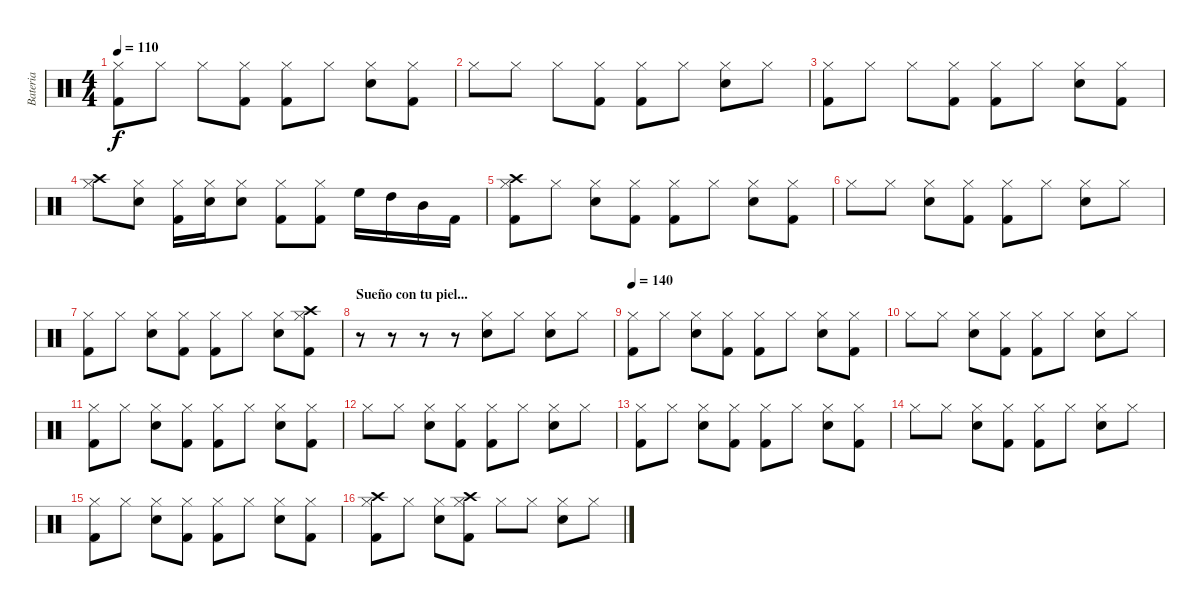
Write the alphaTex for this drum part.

\track ("Bateria" "Bateria") {instrument percussion}
\staff {score}
\articulation defaults
\ts (4 4)
\tempo 110
\clef neutral
\ks c
("Hi-Hat (closed)" "Kick (hit) 2").8{dy f} "Hi-Hat (closed)".8 "Hi-Hat (closed)".8 ("Hi-Hat (closed)" "Kick (hit) 2").8 ("Hi-Hat (closed)" "Kick (hit) 2").8 "Hi-Hat (closed)".8 ("Hi-Hat (closed)" "Snare (hit) 2").8 ("Hi-Hat (closed)" "Kick (hit) 2").8 |
"Hi-Hat (closed)".8 "Hi-Hat (closed)".8 "Hi-Hat (closed)".8 ("Hi-Hat (closed)" "Kick (hit) 2").8 ("Hi-Hat (closed)" "Kick (hit) 2").8 "Hi-Hat (closed)".8 ("Hi-Hat (closed)" "Snare (hit) 2").8 "Hi-Hat (closed)".8 |
("Hi-Hat (closed)" "Kick (hit) 2").8 "Hi-Hat (closed)".8 "Hi-Hat (closed)".8 ("Hi-Hat (closed)" "Kick (hit) 2").8 ("Hi-Hat (closed)" "Kick (hit) 2").8 "Hi-Hat (closed)".8 ("Hi-Hat (closed)" "Snare (hit) 2").8 ("Hi-Hat (closed)" "Kick (hit) 2").8 |
("Hi-Hat (closed)" "Crash high (hit)").8 ("Hi-Hat (closed)" "Snare (hit) 2").8 ("Hi-Hat (closed)" "Kick (hit) 2").16 ("Hi-Hat (closed)" "Snare (hit) 2").16 ("Hi-Hat (closed)" "Snare (hit) 2").8 ("Hi-Hat (closed)" "Kick (hit) 2").8 ("Hi-Hat (closed)" "Kick (hit) 2").8 "High Floor Tom (hit)".16 "High Tom (hit)".16 "Mid Tom (hit)".16 "Kick (hit) 2".16 |
("Hi-Hat (closed)" "Crash high (hit)" "Kick (hit) 2").8 "Hi-Hat (closed)".8 ("Hi-Hat (closed)" "Snare (hit) 2").8 ("Hi-Hat (closed)" "Kick (hit) 2").8 ("Hi-Hat (closed)" "Kick (hit) 2").8 "Hi-Hat (closed)".8 ("Hi-Hat (closed)" "Snare (hit) 2").8 ("Hi-Hat (closed)" "Kick (hit) 2").8 |
"Hi-Hat (closed)".8 "Hi-Hat (closed)".8 ("Hi-Hat (closed)" "Snare (hit) 2").8 ("Hi-Hat (closed)" "Kick (hit) 2").8 ("Hi-Hat (closed)" "Kick (hit) 2").8 "Hi-Hat (closed)".8 ("Hi-Hat (closed)" "Snare (hit) 2").8 "Hi-Hat (closed)".8 |
("Hi-Hat (closed)" "Kick (hit) 2").8 "Hi-Hat (closed)".8 ("Hi-Hat (closed)" "Snare (hit) 2").8 ("Hi-Hat (closed)" "Kick (hit) 2").8 ("Hi-Hat (closed)" "Kick (hit) 2").8 "Hi-Hat (closed)".8 ("Hi-Hat (closed)" "Snare (hit) 2").8 ("Hi-Hat (closed)" "Crash high (hit)" "Kick (hit) 2").8 |
\section ("" "Sueño con tu piel...")
r.8 r.8 r.8 r.8 ("Hi-Hat (closed)" "Snare (hit) 2").8 "Hi-Hat (closed)".8 ("Hi-Hat (closed)" "Snare (hit) 2").8 "Hi-Hat (closed)".8 |
\tempo 140
("Hi-Hat (closed)" "Kick (hit) 2").8 "Hi-Hat (closed)".8 ("Hi-Hat (closed)" "Snare (hit) 2").8 ("Hi-Hat (closed)" "Kick (hit) 2").8 ("Hi-Hat (closed)" "Kick (hit) 2").8 "Hi-Hat (closed)".8 ("Hi-Hat (closed)" "Snare (hit) 2").8 ("Hi-Hat (closed)" "Kick (hit) 2").8 |
"Hi-Hat (closed)".8 "Hi-Hat (closed)".8 ("Hi-Hat (closed)" "Snare (hit) 2").8 ("Hi-Hat (closed)" "Kick (hit) 2").8 ("Hi-Hat (closed)" "Kick (hit) 2").8 "Hi-Hat (closed)".8 ("Hi-Hat (closed)" "Snare (hit) 2").8 "Hi-Hat (closed)".8 |
("Hi-Hat (closed)" "Kick (hit) 2").8 "Hi-Hat (closed)".8 ("Hi-Hat (closed)" "Snare (hit) 2").8 ("Hi-Hat (closed)" "Kick (hit) 2").8 ("Hi-Hat (closed)" "Kick (hit) 2").8 "Hi-Hat (closed)".8 ("Hi-Hat (closed)" "Snare (hit) 2").8 ("Hi-Hat (closed)" "Kick (hit) 2").8 |
"Hi-Hat (closed)".8 "Hi-Hat (closed)".8 ("Hi-Hat (closed)" "Snare (hit) 2").8 ("Hi-Hat (closed)" "Kick (hit) 2").8 ("Hi-Hat (closed)" "Kick (hit) 2").8 "Hi-Hat (closed)".8 ("Hi-Hat (closed)" "Snare (hit) 2").8 "Hi-Hat (closed)".8 |
("Hi-Hat (closed)" "Kick (hit) 2").8 "Hi-Hat (closed)".8 ("Hi-Hat (closed)" "Snare (hit) 2").8 ("Hi-Hat (closed)" "Kick (hit) 2").8 ("Hi-Hat (closed)" "Kick (hit) 2").8 "Hi-Hat (closed)".8 ("Hi-Hat (closed)" "Snare (hit) 2").8 ("Hi-Hat (closed)" "Kick (hit) 2").8 |
"Hi-Hat (closed)".8 "Hi-Hat (closed)".8 ("Hi-Hat (closed)" "Snare (hit) 2").8 ("Hi-Hat (closed)" "Kick (hit) 2").8 ("Hi-Hat (closed)" "Kick (hit) 2").8 "Hi-Hat (closed)".8 ("Hi-Hat (closed)" "Snare (hit) 2").8 "Hi-Hat (closed)".8 |
("Hi-Hat (closed)" "Kick (hit) 2").8 "Hi-Hat (closed)".8 ("Hi-Hat (closed)" "Snare (hit) 2").8 ("Hi-Hat (closed)" "Kick (hit) 2").8 ("Hi-Hat (closed)" "Kick (hit) 2").8 "Hi-Hat (closed)".8 ("Hi-Hat (closed)" "Snare (hit) 2").8 ("Hi-Hat (closed)" "Kick (hit) 2").8 |
("Hi-Hat (closed)" "Crash high (hit)" "Kick (hit) 2").8 "Hi-Hat (closed)".8 ("Hi-Hat (closed)" "Snare (hit) 2").8 ("Hi-Hat (closed)" "Crash high (hit)" "Kick (hit) 2").8 "Hi-Hat (closed)".8 "Hi-Hat (closed)".8 ("Hi-Hat (closed)" "Snare (hit) 2").8 "Hi-Hat (closed)".8
